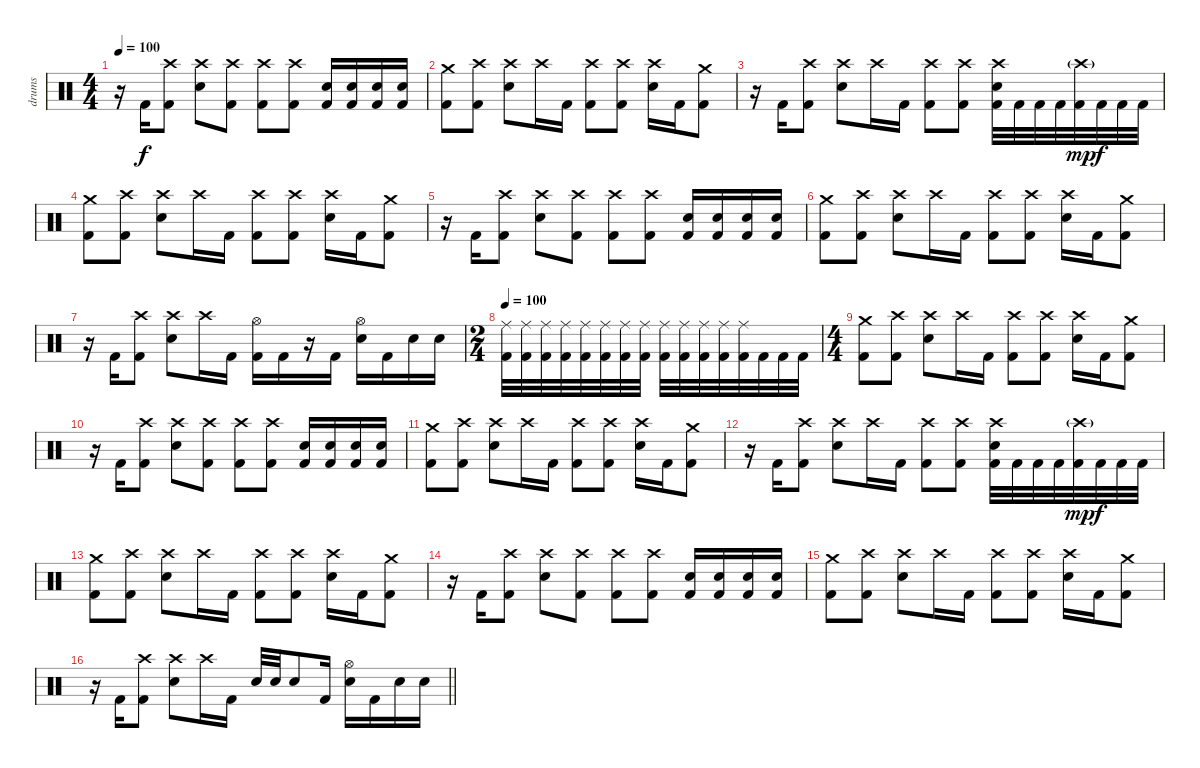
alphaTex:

\track ("drums" "drums") {instrument percussion}
\staff {score}
\articulation defaults
\ts (4 4)
\tempo 100
\clef neutral
\ks c
r.16{dy f} "Kick (hit) 2".16 ("Crash high (hit)" "Kick (hit) 2").8 ("Crash high (hit)" "Snare (hit) 2").8 ("Crash high (hit)" "Kick (hit) 2").8 ("Crash high (hit)" "Kick (hit) 2").8 ("Crash high (hit)" "Kick (hit) 2").8 ("Kick (hit) 2" "Snare (hit) 2").16 ("Kick (hit) 2" "Snare (hit) 2").16 ("Kick (hit) 2" "Snare (hit) 2").16 ("Kick (hit) 2" "Snare (hit) 2").16 |
("Crash medium (hit)" "Kick (hit) 2").8 ("Crash high (hit)" "Kick (hit) 2").8 ("Crash high (hit)" "Snare (hit) 2").8 "Crash high (hit)".16 "Kick (hit) 2".16 ("Crash high (hit)" "Kick (hit) 2").8 ("Crash high (hit)" "Kick (hit) 2").8 ("Crash high (hit)" "Snare (hit) 2").16 "Kick (hit) 2".16 ("Crash medium (hit)" "Kick (hit) 2").8 |
r.16 "Kick (hit) 2".16 ("Crash high (hit)" "Kick (hit) 2").8 ("Crash high (hit)" "Snare (hit) 2").8 "Crash high (hit)".16 "Kick (hit) 2".16 ("Crash high (hit)" "Kick (hit) 2").8 ("Crash high (hit)" "Kick (hit) 2").8 ("Crash high (hit)" "Snare (hit) 2" "Kick (hit) 2").32 "Kick (hit) 2".32 "Kick (hit) 2".32 "Kick (hit) 2".32 ("Crash high (hit)"{g} "Kick (hit) 2").32{dy mp} "Kick (hit) 2".32{dy f} "Kick (hit) 2".32 "Kick (hit) 2".32 |
("Crash medium (hit)" "Kick (hit) 2").8 ("Crash high (hit)" "Kick (hit) 2").8 ("Crash high (hit)" "Snare (hit) 2").8 "Crash high (hit)".16 "Kick (hit) 2".16 ("Crash high (hit)" "Kick (hit) 2").8 ("Crash high (hit)" "Kick (hit) 2").8 ("Crash high (hit)" "Snare (hit) 2").16 "Kick (hit) 2".16 ("Crash medium (hit)" "Kick (hit) 2").8 |
r.16 "Kick (hit) 2".16 ("Crash high (hit)" "Kick (hit) 2").8 ("Crash high (hit)" "Snare (hit) 2").8 ("Crash high (hit)" "Kick (hit) 2").8 ("Crash high (hit)" "Kick (hit) 2").8 ("Crash high (hit)" "Kick (hit) 2").8 ("Kick (hit) 2" "Snare (hit) 2").16 ("Kick (hit) 2" "Snare (hit) 2").16 ("Kick (hit) 2" "Snare (hit) 2").16 ("Kick (hit) 2" "Snare (hit) 2").16 |
("Crash medium (hit)" "Kick (hit) 2").8 ("Crash high (hit)" "Kick (hit) 2").8 ("Crash high (hit)" "Snare (hit) 2").8 "Crash high (hit)".16 "Kick (hit) 2".16 ("Crash high (hit)" "Kick (hit) 2").8 ("Crash high (hit)" "Kick (hit) 2").8 ("Crash high (hit)" "Snare (hit) 2").16 "Kick (hit) 2".16 ("Crash medium (hit)" "Kick (hit) 2").8 |
r.16 "Kick (hit) 2".16 ("Crash high (hit)" "Kick (hit) 2").8 ("Crash high (hit)" "Snare (hit) 2").8 "Crash high (hit)".16 "Kick (hit) 2".16 ("Hi-Hat (open)" "Kick (hit) 2").16 "Kick (hit) 2".16 r.16 "Kick (hit) 2".16 ("Hi-Hat (open)" "Snare (hit) 2").16 "Kick (hit) 2".16 "Snare (hit) 2".16 "Snare (hit) 2".16 |
\ts (2 4)
\tempo 100
("Ride (middle)" "Kick (hit) 2").32 ("Ride (middle)" "Kick (hit) 2").32 ("Ride (middle)" "Kick (hit) 2").32 ("Ride (middle)" "Kick (hit) 2").32 ("Ride (middle)" "Kick (hit) 2").32 ("Ride (middle)" "Kick (hit) 2").32 ("Ride (middle)" "Kick (hit) 2").32 ("Ride (middle)" "Kick (hit) 2").32 ("Ride (middle)" "Kick (hit) 2").32 ("Ride (middle)" "Kick (hit) 2").32 ("Ride (middle)" "Kick (hit) 2").32 ("Ride (middle)" "Kick (hit) 2").32 ("Ride (middle)" "Kick (hit) 2").32 "Kick (hit) 2".32 "Kick (hit) 2".32 "Kick (hit) 2".32 |
\ts (4 4)
("Crash medium (hit)" "Kick (hit) 2").8 ("Crash high (hit)" "Kick (hit) 2").8 ("Crash high (hit)" "Snare (hit) 2").8 "Crash high (hit)".16 "Kick (hit) 2".16 ("Crash high (hit)" "Kick (hit) 2").8 ("Crash high (hit)" "Kick (hit) 2").8 ("Crash high (hit)" "Snare (hit) 2").16 "Kick (hit) 2".16 ("Crash medium (hit)" "Kick (hit) 2").8 |
r.16 "Kick (hit) 2".16 ("Crash high (hit)" "Kick (hit) 2").8 ("Crash high (hit)" "Snare (hit) 2").8 ("Crash high (hit)" "Kick (hit) 2").8 ("Crash high (hit)" "Kick (hit) 2").8 ("Crash high (hit)" "Kick (hit) 2").8 ("Kick (hit) 2" "Snare (hit) 2").16 ("Kick (hit) 2" "Snare (hit) 2").16 ("Kick (hit) 2" "Snare (hit) 2").16 ("Kick (hit) 2" "Snare (hit) 2").16 |
("Crash medium (hit)" "Kick (hit) 2").8 ("Crash high (hit)" "Kick (hit) 2").8 ("Crash high (hit)" "Snare (hit) 2").8 "Crash high (hit)".16 "Kick (hit) 2".16 ("Crash high (hit)" "Kick (hit) 2").8 ("Crash high (hit)" "Kick (hit) 2").8 ("Crash high (hit)" "Snare (hit) 2").16 "Kick (hit) 2".16 ("Crash medium (hit)" "Kick (hit) 2").8 |
r.16 "Kick (hit) 2".16 ("Crash high (hit)" "Kick (hit) 2").8 ("Crash high (hit)" "Snare (hit) 2").8 "Crash high (hit)".16 "Kick (hit) 2".16 ("Crash high (hit)" "Kick (hit) 2").8 ("Crash high (hit)" "Kick (hit) 2").8 ("Crash high (hit)" "Snare (hit) 2" "Kick (hit) 2").32 "Kick (hit) 2".32 "Kick (hit) 2".32 "Kick (hit) 2".32 ("Crash high (hit)"{g} "Kick (hit) 2").32{dy mp} "Kick (hit) 2".32{dy f} "Kick (hit) 2".32 "Kick (hit) 2".32 |
("Crash medium (hit)" "Kick (hit) 2").8 ("Crash high (hit)" "Kick (hit) 2").8 ("Crash high (hit)" "Snare (hit) 2").8 "Crash high (hit)".16 "Kick (hit) 2".16 ("Crash high (hit)" "Kick (hit) 2").8 ("Crash high (hit)" "Kick (hit) 2").8 ("Crash high (hit)" "Snare (hit) 2").16 "Kick (hit) 2".16 ("Crash medium (hit)" "Kick (hit) 2").8 |
r.16 "Kick (hit) 2".16 ("Crash high (hit)" "Kick (hit) 2").8 ("Crash high (hit)" "Snare (hit) 2").8 ("Crash high (hit)" "Kick (hit) 2").8 ("Crash high (hit)" "Kick (hit) 2").8 ("Crash high (hit)" "Kick (hit) 2").8 ("Kick (hit) 2" "Snare (hit) 2").16 ("Kick (hit) 2" "Snare (hit) 2").16 ("Kick (hit) 2" "Snare (hit) 2").16 ("Kick (hit) 2" "Snare (hit) 2").16 |
("Crash medium (hit)" "Kick (hit) 2").8 ("Crash high (hit)" "Kick (hit) 2").8 ("Crash high (hit)" "Snare (hit) 2").8 "Crash high (hit)".16 "Kick (hit) 2".16 ("Crash high (hit)" "Kick (hit) 2").8 ("Crash high (hit)" "Kick (hit) 2").8 ("Crash high (hit)" "Snare (hit) 2").16 "Kick (hit) 2".16 ("Crash medium (hit)" "Kick (hit) 2").8 |
\barLineRight lightlight
r.16 "Kick (hit) 2".16 ("Crash high (hit)" "Kick (hit) 2").8 ("Crash high (hit)" "Snare (hit) 2").8 "Crash high (hit)".16 "Kick (hit) 2".16 "Snare (hit) 2".32 "Snare (hit) 2".32 "Snare (hit) 2".8 "Kick (hit) 2".16 ("Hi-Hat (open)" "Snare (hit) 2").16 "Kick (hit) 2".16 "Snare (hit) 2".16 "Snare (hit) 2".16
